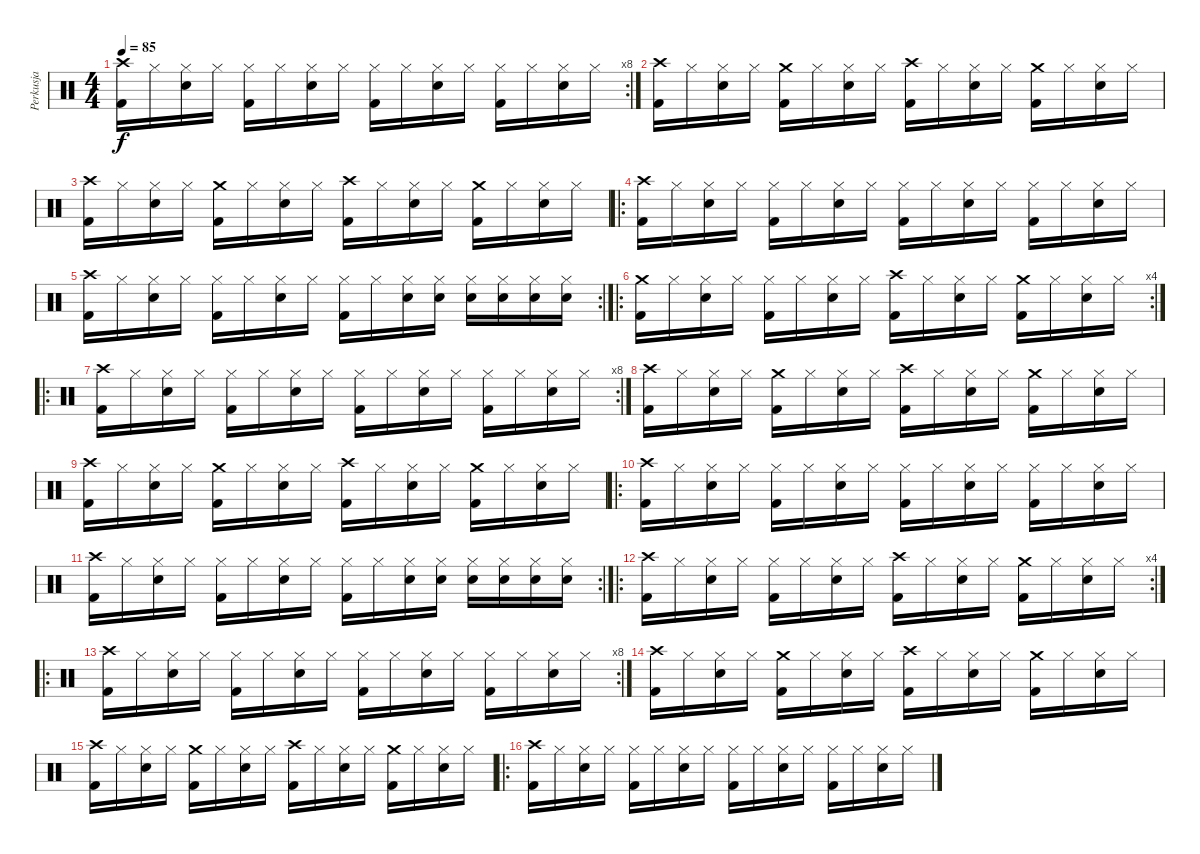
\track ("Perkusja" "Perkusja") {instrument percussion}
\staff {score}
\articulation defaults
\rc 8
\ts (4 4)
\tempo 85
\clef neutral
\ks c
("Crash high (hit)" "Kick (hit) 2").16{dy f} "Hi-Hat (closed)".16 ("Hi-Hat (closed)" "Electric Snare (hit)").16 "Hi-Hat (closed)".16 ("Hi-Hat (closed)" "Kick (hit) 2").16 "Hi-Hat (closed)".16 ("Hi-Hat (closed)" "Electric Snare (hit)").16 "Hi-Hat (closed)".16 ("Hi-Hat (closed)" "Kick (hit) 2").16 "Hi-Hat (closed)".16 ("Hi-Hat (closed)" "Electric Snare (hit)").16 "Hi-Hat (closed)".16 ("Hi-Hat (closed)" "Kick (hit) 2").16 "Hi-Hat (closed)".16 ("Hi-Hat (closed)" "Electric Snare (hit)").16 "Hi-Hat (closed)".16 |
("Crash high (hit)" "Kick (hit) 2").16 "Hi-Hat (closed)".16 ("Hi-Hat (closed)" "Electric Snare (hit)").16 "Hi-Hat (closed)".16 ("Crash medium (hit)" "Kick (hit) 2").16 "Hi-Hat (closed)".16 ("Hi-Hat (closed)" "Electric Snare (hit)").16 "Hi-Hat (closed)".16 ("Crash high (hit)" "Kick (hit) 2").16 "Hi-Hat (closed)".16 ("Hi-Hat (closed)" "Electric Snare (hit)").16 "Hi-Hat (closed)".16 ("Crash medium (hit)" "Kick (hit) 2").16 "Hi-Hat (closed)".16 ("Hi-Hat (closed)" "Electric Snare (hit)").16 "Hi-Hat (closed)".16 |
("Crash high (hit)" "Kick (hit) 2").16 "Hi-Hat (closed)".16 ("Hi-Hat (closed)" "Electric Snare (hit)").16 "Hi-Hat (closed)".16 ("Crash medium (hit)" "Kick (hit) 2").16 "Hi-Hat (closed)".16 ("Hi-Hat (closed)" "Electric Snare (hit)").16 "Hi-Hat (closed)".16 ("Crash high (hit)" "Kick (hit) 2").16 "Hi-Hat (closed)".16 ("Hi-Hat (closed)" "Electric Snare (hit)").16 "Hi-Hat (closed)".16 ("Crash medium (hit)" "Kick (hit) 2").16 "Hi-Hat (closed)".16 ("Hi-Hat (closed)" "Electric Snare (hit)").16 "Hi-Hat (closed)".16 |
\ro
("Crash high (hit)" "Kick (hit) 2").16 "Hi-Hat (closed)".16 ("Hi-Hat (closed)" "Electric Snare (hit)").16 "Hi-Hat (closed)".16 ("Hi-Hat (closed)" "Kick (hit) 2").16 "Hi-Hat (closed)".16 ("Hi-Hat (closed)" "Electric Snare (hit)").16 "Hi-Hat (closed)".16 ("Hi-Hat (closed)" "Kick (hit) 2").16 "Hi-Hat (closed)".16 ("Hi-Hat (closed)" "Electric Snare (hit)").16 "Hi-Hat (closed)".16 ("Hi-Hat (closed)" "Kick (hit) 2").16 "Hi-Hat (closed)".16 ("Hi-Hat (closed)" "Electric Snare (hit)").16 "Hi-Hat (closed)".16 |
\rc 2
("Crash high (hit)" "Kick (hit) 2").16 "Hi-Hat (closed)".16 ("Hi-Hat (closed)" "Electric Snare (hit)").16 "Hi-Hat (closed)".16 ("Hi-Hat (closed)" "Kick (hit) 2").16 "Hi-Hat (closed)".16 ("Hi-Hat (closed)" "Electric Snare (hit)").16 "Hi-Hat (closed)".16 ("Hi-Hat (closed)" "Kick (hit) 2").16 "Hi-Hat (closed)".16 ("Hi-Hat (closed)" "Electric Snare (hit)").16 ("Hi-Hat (closed)" "Electric Snare (hit)").16 ("Hi-Hat (closed)" "Electric Snare (hit)").16 ("Hi-Hat (closed)" "Electric Snare (hit)").16 ("Hi-Hat (closed)" "Electric Snare (hit)").16 ("Hi-Hat (closed)" "Electric Snare (hit)").16 |
\ro
\rc 4
("Crash medium (hit)" "Kick (hit) 2").16 "Hi-Hat (closed)".16 ("Hi-Hat (closed)" "Electric Snare (hit)").16 "Hi-Hat (closed)".16 ("Hi-Hat (closed)" "Kick (hit) 2").16 "Hi-Hat (closed)".16 ("Hi-Hat (closed)" "Electric Snare (hit)").16 "Hi-Hat (closed)".16 ("Crash high (hit)" "Kick (hit) 2").16 "Hi-Hat (closed)".16 ("Hi-Hat (closed)" "Electric Snare (hit)").16 "Hi-Hat (closed)".16 ("Crash medium (hit)" "Kick (hit) 2").16 "Hi-Hat (closed)".16 ("Hi-Hat (closed)" "Electric Snare (hit)").16 "Hi-Hat (closed)".16 |
\ro
\rc 8
("Crash high (hit)" "Kick (hit) 2").16 "Hi-Hat (closed)".16 ("Hi-Hat (closed)" "Electric Snare (hit)").16 "Hi-Hat (closed)".16 ("Hi-Hat (closed)" "Kick (hit) 2").16 "Hi-Hat (closed)".16 ("Hi-Hat (closed)" "Electric Snare (hit)").16 "Hi-Hat (closed)".16 ("Hi-Hat (closed)" "Kick (hit) 2").16 "Hi-Hat (closed)".16 ("Hi-Hat (closed)" "Electric Snare (hit)").16 "Hi-Hat (closed)".16 ("Hi-Hat (closed)" "Kick (hit) 2").16 "Hi-Hat (closed)".16 ("Hi-Hat (closed)" "Electric Snare (hit)").16 "Hi-Hat (closed)".16 |
("Crash high (hit)" "Kick (hit) 2").16 "Hi-Hat (closed)".16 ("Hi-Hat (closed)" "Electric Snare (hit)").16 "Hi-Hat (closed)".16 ("Crash medium (hit)" "Kick (hit) 2").16 "Hi-Hat (closed)".16 ("Hi-Hat (closed)" "Electric Snare (hit)").16 "Hi-Hat (closed)".16 ("Crash high (hit)" "Kick (hit) 2").16 "Hi-Hat (closed)".16 ("Hi-Hat (closed)" "Electric Snare (hit)").16 "Hi-Hat (closed)".16 ("Crash medium (hit)" "Kick (hit) 2").16 "Hi-Hat (closed)".16 ("Hi-Hat (closed)" "Electric Snare (hit)").16 "Hi-Hat (closed)".16 |
("Crash high (hit)" "Kick (hit) 2").16 "Hi-Hat (closed)".16 ("Hi-Hat (closed)" "Electric Snare (hit)").16 "Hi-Hat (closed)".16 ("Crash medium (hit)" "Kick (hit) 2").16 "Hi-Hat (closed)".16 ("Hi-Hat (closed)" "Electric Snare (hit)").16 "Hi-Hat (closed)".16 ("Crash high (hit)" "Kick (hit) 2").16 "Hi-Hat (closed)".16 ("Hi-Hat (closed)" "Electric Snare (hit)").16 "Hi-Hat (closed)".16 ("Crash medium (hit)" "Kick (hit) 2").16 "Hi-Hat (closed)".16 ("Hi-Hat (closed)" "Electric Snare (hit)").16 "Hi-Hat (closed)".16 |
\ro
("Crash high (hit)" "Kick (hit) 2").16 "Hi-Hat (closed)".16 ("Hi-Hat (closed)" "Electric Snare (hit)").16 "Hi-Hat (closed)".16 ("Hi-Hat (closed)" "Kick (hit) 2").16 "Hi-Hat (closed)".16 ("Hi-Hat (closed)" "Electric Snare (hit)").16 "Hi-Hat (closed)".16 ("Hi-Hat (closed)" "Kick (hit) 2").16 "Hi-Hat (closed)".16 ("Hi-Hat (closed)" "Electric Snare (hit)").16 "Hi-Hat (closed)".16 ("Hi-Hat (closed)" "Kick (hit) 2").16 "Hi-Hat (closed)".16 ("Hi-Hat (closed)" "Electric Snare (hit)").16 "Hi-Hat (closed)".16 |
\rc 2
("Crash high (hit)" "Kick (hit) 2").16 "Hi-Hat (closed)".16 ("Hi-Hat (closed)" "Electric Snare (hit)").16 "Hi-Hat (closed)".16 ("Hi-Hat (closed)" "Kick (hit) 2").16 "Hi-Hat (closed)".16 ("Hi-Hat (closed)" "Electric Snare (hit)").16 "Hi-Hat (closed)".16 ("Hi-Hat (closed)" "Kick (hit) 2").16 "Hi-Hat (closed)".16 ("Hi-Hat (closed)" "Electric Snare (hit)").16 ("Hi-Hat (closed)" "Electric Snare (hit)").16 ("Hi-Hat (closed)" "Electric Snare (hit)").16 ("Hi-Hat (closed)" "Electric Snare (hit)").16 ("Hi-Hat (closed)" "Electric Snare (hit)").16 ("Hi-Hat (closed)" "Electric Snare (hit)").16 |
\ro
\rc 4
("Crash high (hit)" "Kick (hit) 2").16 "Hi-Hat (closed)".16 ("Hi-Hat (closed)" "Electric Snare (hit)").16 "Hi-Hat (closed)".16 ("Hi-Hat (closed)" "Kick (hit) 2").16 "Hi-Hat (closed)".16 ("Hi-Hat (closed)" "Electric Snare (hit)").16 "Hi-Hat (closed)".16 ("Crash high (hit)" "Kick (hit) 2").16 "Hi-Hat (closed)".16 ("Hi-Hat (closed)" "Electric Snare (hit)").16 "Hi-Hat (closed)".16 ("Crash medium (hit)" "Kick (hit) 2").16 "Hi-Hat (closed)".16 ("Hi-Hat (closed)" "Electric Snare (hit)").16 "Hi-Hat (closed)".16 |
\ro
\rc 8
("Crash high (hit)" "Kick (hit) 2").16 "Hi-Hat (closed)".16 ("Hi-Hat (closed)" "Electric Snare (hit)").16 "Hi-Hat (closed)".16 ("Hi-Hat (closed)" "Kick (hit) 2").16 "Hi-Hat (closed)".16 ("Hi-Hat (closed)" "Electric Snare (hit)").16 "Hi-Hat (closed)".16 ("Hi-Hat (closed)" "Kick (hit) 2").16 "Hi-Hat (closed)".16 ("Hi-Hat (closed)" "Electric Snare (hit)").16 "Hi-Hat (closed)".16 ("Hi-Hat (closed)" "Kick (hit) 2").16 "Hi-Hat (closed)".16 ("Hi-Hat (closed)" "Electric Snare (hit)").16 "Hi-Hat (closed)".16 |
("Crash high (hit)" "Kick (hit) 2").16 "Hi-Hat (closed)".16 ("Hi-Hat (closed)" "Electric Snare (hit)").16 "Hi-Hat (closed)".16 ("Crash medium (hit)" "Kick (hit) 2").16 "Hi-Hat (closed)".16 ("Hi-Hat (closed)" "Electric Snare (hit)").16 "Hi-Hat (closed)".16 ("Crash high (hit)" "Kick (hit) 2").16 "Hi-Hat (closed)".16 ("Hi-Hat (closed)" "Electric Snare (hit)").16 "Hi-Hat (closed)".16 ("Crash medium (hit)" "Kick (hit) 2").16 "Hi-Hat (closed)".16 ("Hi-Hat (closed)" "Electric Snare (hit)").16 "Hi-Hat (closed)".16 |
("Crash high (hit)" "Kick (hit) 2").16 "Hi-Hat (closed)".16 ("Hi-Hat (closed)" "Electric Snare (hit)").16 "Hi-Hat (closed)".16 ("Crash medium (hit)" "Kick (hit) 2").16 "Hi-Hat (closed)".16 ("Hi-Hat (closed)" "Electric Snare (hit)").16 "Hi-Hat (closed)".16 ("Crash high (hit)" "Kick (hit) 2").16 "Hi-Hat (closed)".16 ("Hi-Hat (closed)" "Electric Snare (hit)").16 "Hi-Hat (closed)".16 ("Crash medium (hit)" "Kick (hit) 2").16 "Hi-Hat (closed)".16 ("Hi-Hat (closed)" "Electric Snare (hit)").16 "Hi-Hat (closed)".16 |
\ro
("Crash high (hit)" "Kick (hit) 2").16 "Hi-Hat (closed)".16 ("Hi-Hat (closed)" "Electric Snare (hit)").16 "Hi-Hat (closed)".16 ("Hi-Hat (closed)" "Kick (hit) 2").16 "Hi-Hat (closed)".16 ("Hi-Hat (closed)" "Electric Snare (hit)").16 "Hi-Hat (closed)".16 ("Hi-Hat (closed)" "Kick (hit) 2").16 "Hi-Hat (closed)".16 ("Hi-Hat (closed)" "Electric Snare (hit)").16 "Hi-Hat (closed)".16 ("Hi-Hat (closed)" "Kick (hit) 2").16 "Hi-Hat (closed)".16 ("Hi-Hat (closed)" "Electric Snare (hit)").16 "Hi-Hat (closed)".16
